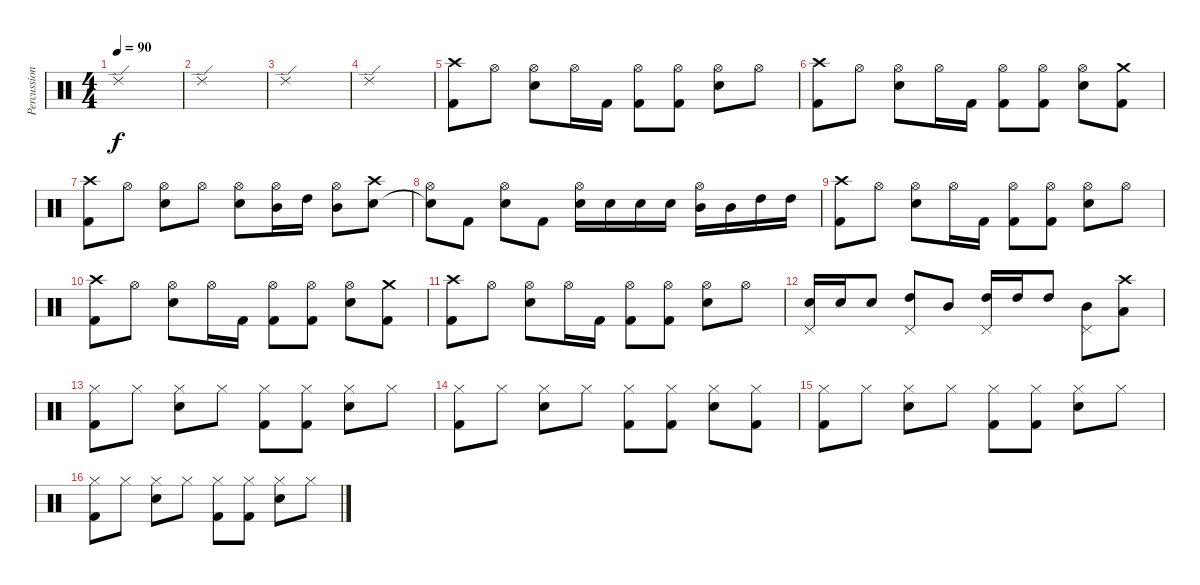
\track ("Percussion" "Percussion") {instrument percussion}
\staff {score}
\articulation defaults
\ts (4 4)
\tempo 90
\clef neutral
\ks c "Ride (edge) 2".1{dy f}
|
"Ride (edge) 2".1 |
"Ride (edge) 2".1 |
"Ride (edge) 2".1 |
("Crash high (hit)" "Kick (hit) 2").8 "Hi-Hat (open)".8 ("Hi-Hat (open)" "Snare (hit) 2").8 "Hi-Hat (open)".16 "Kick (hit) 2".16 ("Hi-Hat (open)" "Kick (hit) 2").8 ("Hi-Hat (open)" "Kick (hit) 2").8 ("Hi-Hat (open)" "Snare (hit) 2").8 "Hi-Hat (open)".8 |
("Crash high (hit)" "Kick (hit) 2").8 "Hi-Hat (open)".8 ("Hi-Hat (open)" "Snare (hit) 2").8 "Hi-Hat (open)".16 "Kick (hit) 2".16 ("Hi-Hat (open)" "Kick (hit) 2").8 ("Hi-Hat (open)" "Kick (hit) 2").8 ("Hi-Hat (open)" "Snare (hit) 2").8 ("Crash medium (hit)" "Kick (hit) 2").8 |
("Crash high (hit)" "Kick (hit) 2").8 "Hi-Hat (open)".8 ("Hi-Hat (open)" "Snare (hit) 2").8 "Hi-Hat (open)".8 ("Hi-Hat (open)" "Snare (hit) 2").8 ("Hi-Hat (open)" "Mid Tom (hit)").16 "High Tom (hit)".16 ("Hi-Hat (open)" "Mid Tom (hit)").8 ("Crash high (hit)" "Snare (hit) 2").8 |
("Hi-Hat (open)" "Snare (hit)"{t}).8 "Kick (hit) 2".8 ("Hi-Hat (open)" "Snare (hit) 2").8 "Kick (hit) 2".8 ("Snare (hit) 2" "Hi-Hat (open)").16 "Snare (hit) 2".16 "Snare (hit) 2".16 "Snare (hit) 2".16 ("Mid Tom (hit)" "Hi-Hat (open)").16 "Mid Tom (hit)".16 "High Tom (hit)".16 "High Tom (hit)".16 |
("Crash high (hit)" "Kick (hit) 2").8 "Hi-Hat (open)".8 ("Hi-Hat (open)" "Snare (hit) 2").8 "Hi-Hat (open)".16 "Kick (hit) 2".16 ("Hi-Hat (open)" "Kick (hit) 2").8 ("Hi-Hat (open)" "Kick (hit) 2").8 ("Hi-Hat (open)" "Snare (hit) 2").8 "Hi-Hat (open)".8 |
("Crash high (hit)" "Kick (hit) 2").8 "Hi-Hat (open)".8 ("Hi-Hat (open)" "Snare (hit) 2").8 "Hi-Hat (open)".16 "Kick (hit) 2".16 ("Hi-Hat (open)" "Kick (hit) 2").8 ("Hi-Hat (open)" "Kick (hit) 2").8 ("Hi-Hat (open)" "Snare (hit) 2").8 ("Crash medium (hit)" "Kick (hit) 2").8 |
("Crash high (hit)" "Kick (hit) 2").8 "Hi-Hat (open)".8 ("Hi-Hat (open)" "Snare (hit) 2").8 "Hi-Hat (open)".16 "Kick (hit) 2".16 ("Hi-Hat (open)" "Kick (hit) 2").8 ("Hi-Hat (open)" "Kick (hit) 2").8 ("Hi-Hat (open)" "Snare (hit) 2").8 "Hi-Hat (open)".8 |
("Snare (hit) 2" "Pedal Hi-Hat (hit)").16 "Snare (hit) 2".16 "Snare (hit) 2".8 ("High Tom (hit)" "Pedal Hi-Hat (hit)").8 "Mid Tom (hit)".8 ("High Tom (hit)" "Pedal Hi-Hat (hit)").16 "High Tom (hit)".16 "High Tom (hit)".8 ("Mid Tom (hit)" "Pedal Hi-Hat (hit)").8 ("Crash high (hit)" "Low Tom (hit)").8 |
("Hi-Hat (closed)" "Kick (hit) 2").8 "Hi-Hat (closed)".8 ("Hi-Hat (closed)" "Snare (hit) 2").8 "Hi-Hat (closed)".8 ("Hi-Hat (closed)" "Kick (hit) 2").8 ("Hi-Hat (closed)" "Kick (hit) 2").8 ("Hi-Hat (closed)" "Snare (hit) 2").8 "Hi-Hat (closed)".8 |
("Hi-Hat (closed)" "Kick (hit) 2").8 "Hi-Hat (closed)".8 ("Hi-Hat (closed)" "Snare (hit) 2").8 "Hi-Hat (closed)".8 ("Hi-Hat (closed)" "Kick (hit) 2").8 ("Hi-Hat (closed)" "Kick (hit) 2").8 ("Hi-Hat (closed)" "Snare (hit) 2").8 ("Hi-Hat (closed)" "Kick (hit) 2").8 |
("Hi-Hat (closed)" "Kick (hit) 2").8 "Hi-Hat (closed)".8 ("Hi-Hat (closed)" "Snare (hit) 2").8 "Hi-Hat (closed)".8 ("Hi-Hat (closed)" "Kick (hit) 2").8 ("Hi-Hat (closed)" "Kick (hit) 2").8 ("Hi-Hat (closed)" "Snare (hit) 2").8 "Hi-Hat (closed)".8 |
("Hi-Hat (closed)" "Kick (hit) 2").8 "Hi-Hat (closed)".8 ("Hi-Hat (closed)" "Snare (hit) 2").8 "Hi-Hat (closed)".8 ("Hi-Hat (closed)" "Kick (hit) 2").8 ("Hi-Hat (closed)" "Kick (hit) 2").8 ("Hi-Hat (closed)" "Snare (hit) 2").8 "Hi-Hat (closed)".8
